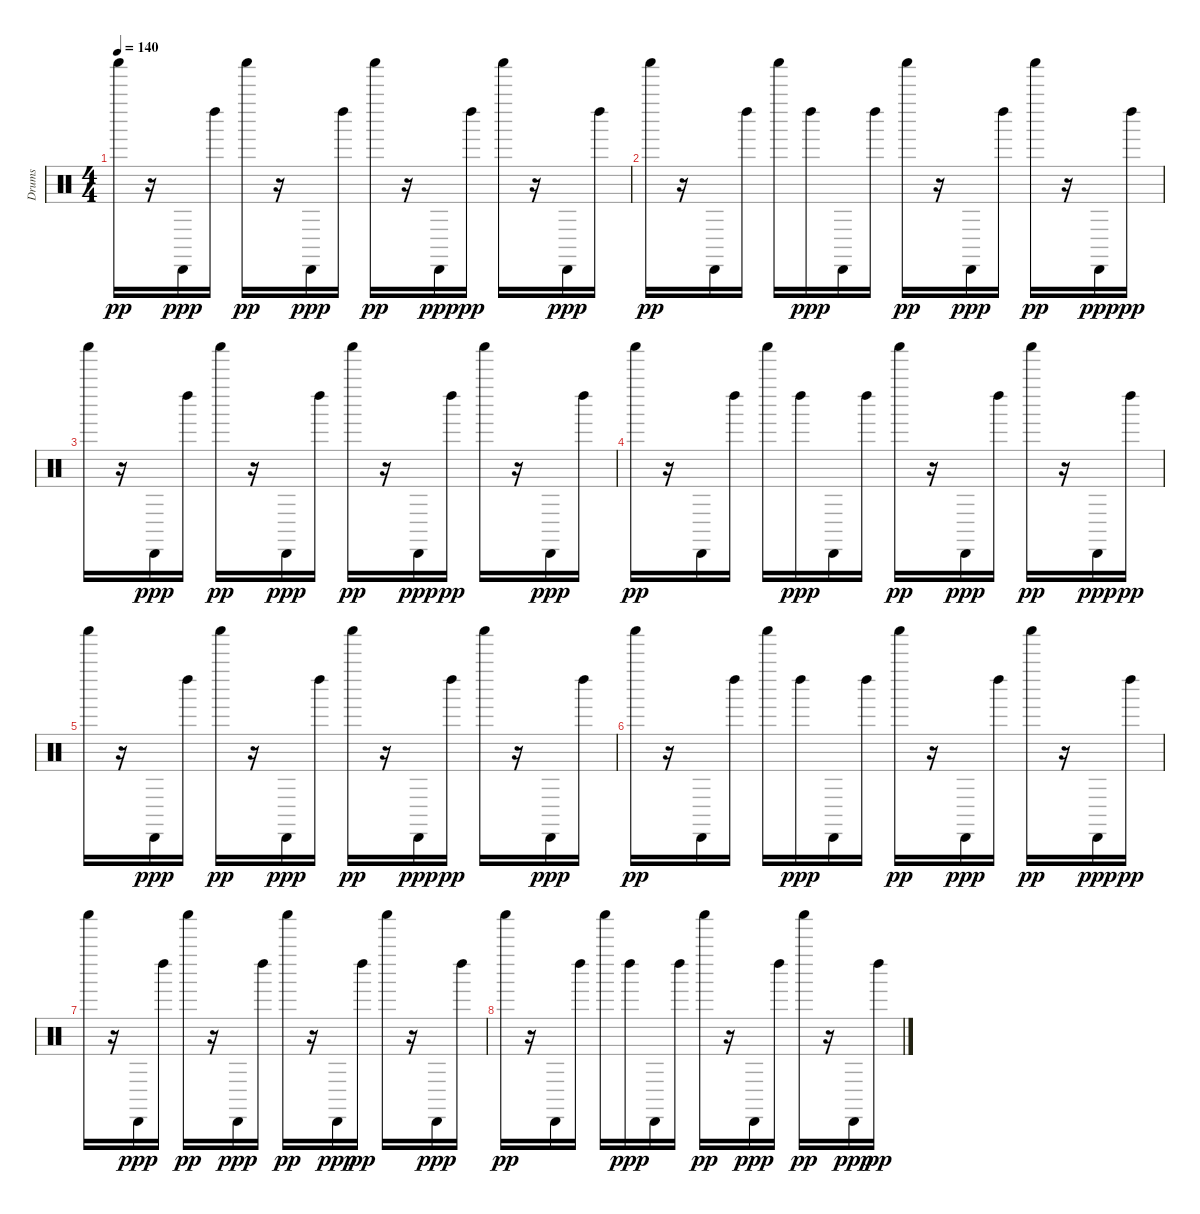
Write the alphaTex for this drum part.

\track ("Drums" "Drums") {instrument percussion}
\staff {score}
\articulation defaults
\ts (4 4)
\tempo 140
\clef neutral
\ks c "Shaker (hit)".16{dy pp}
r.16 "Cabasa (hit)".16{dy ppp} "Left Maraca (hit)".16 "Shaker (hit)".16{dy pp} r.16 "Cabasa (hit)".16{dy ppp} "Left Maraca (hit)".16 "Shaker (hit)".16{dy pp} r.16 "Cabasa (hit)".16{dy ppp} "Left Maraca (hit)".16{dy pp} "Shaker (hit)".16 r.16 "Cabasa (hit)".16{dy ppp} "Left Maraca (hit)".16 |
"Shaker (hit)".16{dy pp} r.16 "Cabasa (hit)".16 "Left Maraca (hit)".16 "Shaker (hit)".16 "Left Maraca (hit)".16{dy ppp} "Cabasa (hit)".16 "Left Maraca (hit)".16 "Shaker (hit)".16{dy pp} r.16 "Cabasa (hit)".16{dy ppp} "Left Maraca (hit)".16 "Shaker (hit)".16{dy pp} r.16 "Cabasa (hit)".16{dy ppp} "Left Maraca (hit)".16{dy pp} |
"Shaker (hit)".16 r.16 "Cabasa (hit)".16{dy ppp} "Left Maraca (hit)".16 "Shaker (hit)".16{dy pp} r.16 "Cabasa (hit)".16{dy ppp} "Left Maraca (hit)".16 "Shaker (hit)".16{dy pp} r.16 "Cabasa (hit)".16{dy ppp} "Left Maraca (hit)".16{dy pp} "Shaker (hit)".16 r.16 "Cabasa (hit)".16{dy ppp} "Left Maraca (hit)".16 |
"Shaker (hit)".16{dy pp} r.16 "Cabasa (hit)".16 "Left Maraca (hit)".16 "Shaker (hit)".16 "Left Maraca (hit)".16{dy ppp} "Cabasa (hit)".16 "Left Maraca (hit)".16 "Shaker (hit)".16{dy pp} r.16 "Cabasa (hit)".16{dy ppp} "Left Maraca (hit)".16 "Shaker (hit)".16{dy pp} r.16 "Cabasa (hit)".16{dy ppp} "Left Maraca (hit)".16{dy pp} |
"Shaker (hit)".16 r.16 "Cabasa (hit)".16{dy ppp} "Left Maraca (hit)".16 "Shaker (hit)".16{dy pp} r.16 "Cabasa (hit)".16{dy ppp} "Left Maraca (hit)".16 "Shaker (hit)".16{dy pp} r.16 "Cabasa (hit)".16{dy ppp} "Left Maraca (hit)".16{dy pp} "Shaker (hit)".16 r.16 "Cabasa (hit)".16{dy ppp} "Left Maraca (hit)".16 |
"Shaker (hit)".16{dy pp} r.16 "Cabasa (hit)".16 "Left Maraca (hit)".16 "Shaker (hit)".16 "Left Maraca (hit)".16{dy ppp} "Cabasa (hit)".16 "Left Maraca (hit)".16 "Shaker (hit)".16{dy pp} r.16 "Cabasa (hit)".16{dy ppp} "Left Maraca (hit)".16 "Shaker (hit)".16{dy pp} r.16 "Cabasa (hit)".16{dy ppp} "Left Maraca (hit)".16{dy pp} |
"Shaker (hit)".16 r.16 "Cabasa (hit)".16{dy ppp} "Left Maraca (hit)".16 "Shaker (hit)".16{dy pp} r.16 "Cabasa (hit)".16{dy ppp} "Left Maraca (hit)".16 "Shaker (hit)".16{dy pp} r.16 "Cabasa (hit)".16{dy ppp} "Left Maraca (hit)".16{dy pp} "Shaker (hit)".16 r.16 "Cabasa (hit)".16{dy ppp} "Left Maraca (hit)".16 |
"Shaker (hit)".16{dy pp} r.16 "Cabasa (hit)".16 "Left Maraca (hit)".16 "Shaker (hit)".16 "Left Maraca (hit)".16{dy ppp} "Cabasa (hit)".16 "Left Maraca (hit)".16 "Shaker (hit)".16{dy pp} r.16 "Cabasa (hit)".16{dy ppp} "Left Maraca (hit)".16 "Shaker (hit)".16{dy pp} r.16 "Cabasa (hit)".16{dy ppp} "Left Maraca (hit)".16{dy pp}
